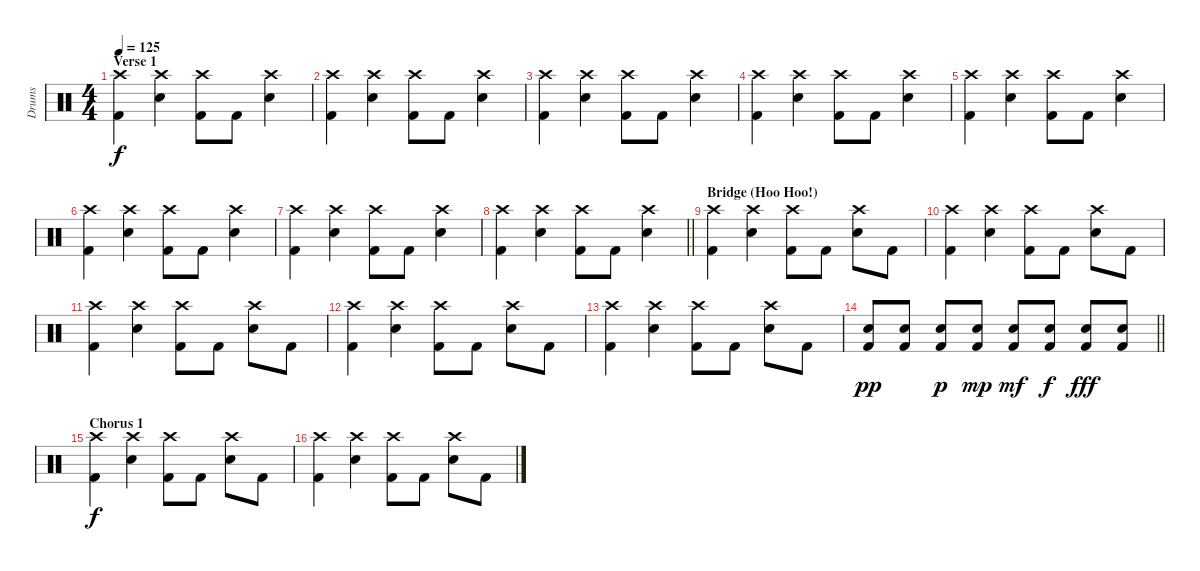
\track ("Drums" "Drums") {instrument percussion}
\staff {score}
\articulation defaults
\ts (4 4)
\section ("" "Verse 1")
\tempo 125
\clef neutral
\ks c
("Kick (hit) 2" "Crash high (hit)").4{dy f} ("Snare (hit) 2" "Crash high (hit)").4 ("Kick (hit) 2" "Crash high (hit)").8 "Kick (hit) 2".8 ("Snare (hit) 2" "Crash high (hit)").4 |
("Kick (hit) 2" "Crash high (hit)").4 ("Snare (hit) 2" "Crash high (hit)").4 ("Kick (hit) 2" "Crash high (hit)").8 "Kick (hit) 2".8 ("Snare (hit) 2" "Crash high (hit)").4 |
("Kick (hit) 2" "Crash high (hit)").4 ("Snare (hit) 2" "Crash high (hit)").4 ("Kick (hit) 2" "Crash high (hit)").8 "Kick (hit) 2".8 ("Snare (hit) 2" "Crash high (hit)").4 |
("Kick (hit) 2" "Crash high (hit)").4 ("Snare (hit) 2" "Crash high (hit)").4 ("Kick (hit) 2" "Crash high (hit)").8 "Kick (hit) 2".8 ("Snare (hit) 2" "Crash high (hit)").4 |
("Kick (hit) 2" "Crash high (hit)").4 ("Snare (hit) 2" "Crash high (hit)").4 ("Kick (hit) 2" "Crash high (hit)").8 "Kick (hit) 2".8 ("Snare (hit) 2" "Crash high (hit)").4 |
("Kick (hit) 2" "Crash high (hit)").4 ("Snare (hit) 2" "Crash high (hit)").4 ("Kick (hit) 2" "Crash high (hit)").8 "Kick (hit) 2".8 ("Snare (hit) 2" "Crash high (hit)").4 |
("Kick (hit) 2" "Crash high (hit)").4 ("Snare (hit) 2" "Crash high (hit)").4 ("Kick (hit) 2" "Crash high (hit)").8 "Kick (hit) 2".8 ("Snare (hit) 2" "Crash high (hit)").4 |
\barLineRight lightlight
("Kick (hit) 2" "Crash high (hit)").4 ("Snare (hit) 2" "Crash high (hit)").4 ("Kick (hit) 2" "Crash high (hit)").8 "Kick (hit) 2".8 ("Snare (hit) 2" "Crash high (hit)").4 |
\section ("" "Bridge (Hoo Hoo!)")
("Kick (hit) 2" "Crash high (hit)").4 ("Snare (hit) 2" "Crash high (hit)").4 ("Kick (hit) 2" "Crash high (hit)").8 "Kick (hit) 2".8 ("Snare (hit) 2" "Crash high (hit)").8 "Kick (hit) 2".8 |
("Kick (hit) 2" "Crash high (hit)").4 ("Snare (hit) 2" "Crash high (hit)").4 ("Kick (hit) 2" "Crash high (hit)").8 "Kick (hit) 2".8 ("Snare (hit) 2" "Crash high (hit)").8 "Kick (hit) 2".8 |
("Kick (hit) 2" "Crash high (hit)").4 ("Snare (hit) 2" "Crash high (hit)").4 ("Kick (hit) 2" "Crash high (hit)").8 "Kick (hit) 2".8 ("Snare (hit) 2" "Crash high (hit)").8 "Kick (hit) 2".8 |
("Kick (hit) 2" "Crash high (hit)").4 ("Snare (hit) 2" "Crash high (hit)").4 ("Kick (hit) 2" "Crash high (hit)").8 "Kick (hit) 2".8 ("Snare (hit) 2" "Crash high (hit)").8 "Kick (hit) 2".8 |
("Kick (hit) 2" "Crash high (hit)").4 ("Snare (hit) 2" "Crash high (hit)").4 ("Kick (hit) 2" "Crash high (hit)").8 "Kick (hit) 2".8 ("Snare (hit) 2" "Crash high (hit)").8 "Kick (hit) 2".8 |
\barLineRight lightlight
("Snare (hit) 2" "Kick (hit) 2").8{dy pp} ("Snare (hit) 2" "Kick (hit) 2").8 ("Snare (hit) 2" "Kick (hit) 2").8{dy p} ("Snare (hit) 2" "Kick (hit) 2").8{dy mp} ("Snare (hit) 2" "Kick (hit) 2").8{dy mf} ("Snare (hit) 2" "Kick (hit) 2").8{dy f} ("Snare (hit) 2" "Kick (hit) 2").8{dy fff} ("Snare (hit) 2" "Kick (hit) 2").8 |
\section ("" "Chorus 1")
("Kick (hit) 2" "Crash high (hit)").4{dy f} ("Snare (hit) 2" "Crash high (hit)").4 ("Kick (hit) 2" "Crash high (hit)").8 "Kick (hit) 2".8 ("Snare (hit) 2" "Crash high (hit)").8 "Kick (hit) 2".8 |
("Kick (hit) 2" "Crash high (hit)").4 ("Snare (hit) 2" "Crash high (hit)").4 ("Kick (hit) 2" "Crash high (hit)").8 "Kick (hit) 2".8 ("Snare (hit) 2" "Crash high (hit)").8 "Kick (hit) 2".8
